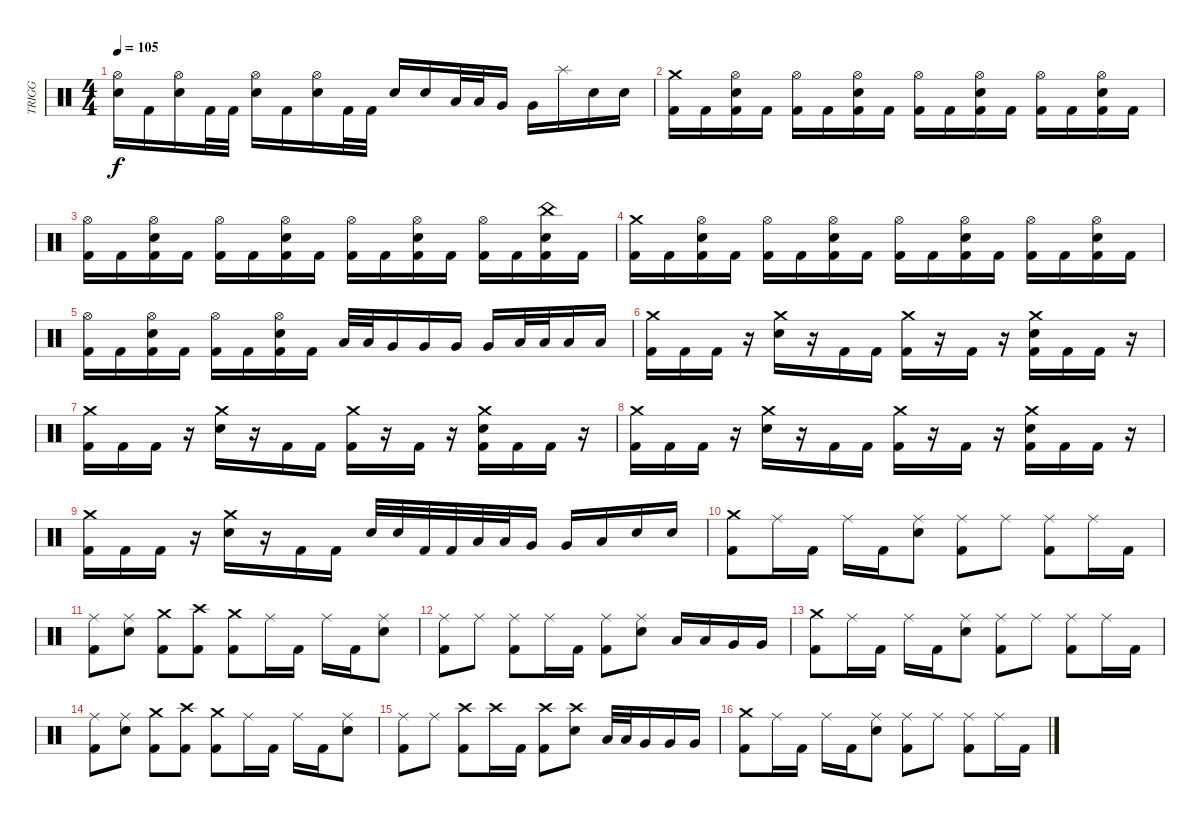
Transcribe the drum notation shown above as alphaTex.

\track ("TRIGG" "TRIGG") {instrument percussion}
\staff {score}
\articulation defaults
\ts (4 4)
\tempo 105
\clef neutral
\ks c
("Hi-Hat (open)" "Electric Snare (hit)").16{dy f} "Kick (hit) 2".16 ("Hi-Hat (open)" "Electric Snare (hit)").16 "Kick (hit) 2".32 "Kick (hit) 2".32 ("Hi-Hat (open)" "Electric Snare (hit)").16 "Kick (hit) 2".16 ("Hi-Hat (open)" "Electric Snare (hit)").16 "Kick (hit) 2".32 "Kick (hit) 2".32 "Electric Snare (hit)".16 "Electric Snare (hit)".16 "Low Tom (hit)".32 "Low Tom (hit)".32 "Very Low Tom (hit)".16 "Very Low Tom (hit)".16 "Splash (hit)".16 "Electric Snare (hit)".16 "Electric Snare (hit)".16 |
("Crash medium (hit)" "Kick (hit) 2").16 "Kick (hit) 2".16 ("Hi-Hat (open)" "Electric Snare (hit)" "Kick (hit) 2").16 "Kick (hit) 2".16 ("Hi-Hat (open)" "Kick (hit) 2").16 "Kick (hit) 2".16 ("Hi-Hat (open)" "Electric Snare (hit)" "Kick (hit) 2").16 "Kick (hit) 2".16 ("Hi-Hat (open)" "Kick (hit) 2").16 "Kick (hit) 2".16 ("Hi-Hat (open)" "Electric Snare (hit)" "Kick (hit) 2").16 "Kick (hit) 2".16 ("Hi-Hat (open)" "Kick (hit) 2").16 "Kick (hit) 2".16 ("Hi-Hat (open)" "Electric Snare (hit)" "Kick (hit) 2").16 "Kick (hit) 2".16 |
("Hi-Hat (open)" "Kick (hit) 2").16 "Kick (hit) 2".16 ("Hi-Hat (open)" "Electric Snare (hit)" "Kick (hit) 2").16 "Kick (hit) 2".16 ("Hi-Hat (open)" "Kick (hit) 2").16 "Kick (hit) 2".16 ("Hi-Hat (open)" "Electric Snare (hit)" "Kick (hit) 2").16 "Kick (hit) 2".16 ("Hi-Hat (open)" "Kick (hit) 2").16 "Kick (hit) 2".16 ("Hi-Hat (open)" "Electric Snare (hit)" "Kick (hit) 2").16 "Kick (hit) 2".16 ("Hi-Hat (open)" "Kick (hit) 2").16 "Kick (hit) 2".16 ("China (hit)" "Electric Snare (hit)" "Kick (hit) 2").16 "Kick (hit) 2".16 |
("Crash medium (hit)" "Kick (hit) 2").16 "Kick (hit) 2".16 ("Hi-Hat (open)" "Electric Snare (hit)" "Kick (hit) 2").16 "Kick (hit) 2".16 ("Hi-Hat (open)" "Kick (hit) 2").16 "Kick (hit) 2".16 ("Hi-Hat (open)" "Electric Snare (hit)" "Kick (hit) 2").16 "Kick (hit) 2".16 ("Hi-Hat (open)" "Kick (hit) 2").16 "Kick (hit) 2".16 ("Hi-Hat (open)" "Electric Snare (hit)" "Kick (hit) 2").16 "Kick (hit) 2".16 ("Hi-Hat (open)" "Kick (hit) 2").16 "Kick (hit) 2".16 ("Hi-Hat (open)" "Electric Snare (hit)" "Kick (hit) 2").16 "Kick (hit) 2".16 |
("Hi-Hat (open)" "Kick (hit) 2").16 "Kick (hit) 2".16 ("Hi-Hat (open)" "Electric Snare (hit)" "Kick (hit) 2").16 "Kick (hit) 2".16 ("Hi-Hat (open)" "Kick (hit) 2").16 "Kick (hit) 2".16 ("Hi-Hat (open)" "Electric Snare (hit)" "Kick (hit) 2").16 "Kick (hit) 2".16 "Low Tom (hit)".32 "Low Tom (hit)".32 "Very Low Tom (hit)".16 "Very Low Tom (hit)".16 "Very Low Tom (hit)".16 "Very Low Tom (hit)".16 "Low Floor Tom (hit)".32 "Low Floor Tom (hit)".32 "Low Floor Tom (hit)".16 "Low Floor Tom (hit)".16 |
("Crash medium (hit)" "Kick (hit) 2").16 "Kick (hit) 2".16 "Kick (hit) 2".16 r.16 ("Crash medium (hit)" "Electric Snare (hit)").16 r.16 "Kick (hit) 2".16 "Kick (hit) 2".16 ("Crash medium (hit)" "Kick (hit) 2").16 r.16 "Kick (hit) 2".16 r.16 ("Crash medium (hit)" "Electric Snare (hit)" "Kick (hit) 2").16 "Kick (hit) 2".16 "Kick (hit) 2".16 r.16 |
("Crash medium (hit)" "Kick (hit) 2").16 "Kick (hit) 2".16 "Kick (hit) 2".16 r.16 ("Crash medium (hit)" "Electric Snare (hit)").16 r.16 "Kick (hit) 2".16 "Kick (hit) 2".16 ("Crash medium (hit)" "Kick (hit) 2").16 r.16 "Kick (hit) 2".16 r.16 ("Crash medium (hit)" "Electric Snare (hit)" "Kick (hit) 2").16 "Kick (hit) 2".16 "Kick (hit) 2".16 r.16 |
("Crash medium (hit)" "Kick (hit) 2").16 "Kick (hit) 2".16 "Kick (hit) 2".16 r.16 ("Crash medium (hit)" "Electric Snare (hit)").16 r.16 "Kick (hit) 2".16 "Kick (hit) 2".16 ("Crash medium (hit)" "Kick (hit) 2").16 r.16 "Kick (hit) 2".16 r.16 ("Crash medium (hit)" "Electric Snare (hit)" "Kick (hit) 2").16 "Kick (hit) 2".16 "Kick (hit) 2".16 r.16 |
("Crash medium (hit)" "Kick (hit) 2").16 "Kick (hit) 2".16 "Kick (hit) 2".16 r.16 ("Crash medium (hit)" "Electric Snare (hit)").16 r.16 "Kick (hit) 2".16 "Kick (hit) 2".16 "Electric Snare (hit)".32 "Electric Snare (hit)".32 "Kick (hit) 2".32 "Kick (hit) 2".32 "Low Tom (hit)".32 "Low Tom (hit)".32 "Very Low Tom (hit)".16 "Very Low Tom (hit)".16 "Low Floor Tom (hit)".16 "Electric Snare (hit)".16 "Electric Snare (hit)".16 |
("Crash medium (hit)" "Kick (hit) 2").8 "Ride (middle)".16 "Kick (hit) 2".16 "Ride (middle)".16 "Kick (hit) 2".16 ("Ride (middle)" "Electric Snare (hit)").8 ("Ride (middle)" "Kick (hit) 2").8 "Ride (middle)".8 ("Ride (middle)" "Kick (hit) 2").8 "Ride (middle)".16 "Kick (hit) 2".16 |
("Ride (middle)" "Kick (hit) 2").8 ("Ride (middle)" "Electric Snare (hit)").8 ("Crash medium (hit)" "Kick (hit) 2").8 ("Crash high (hit)" "Kick (hit) 2").8 ("Crash medium (hit)" "Kick (hit) 2").8 "Ride (middle)".16 "Kick (hit) 2".16 "Ride (middle)".16 "Kick (hit) 2".16 ("Ride (middle)" "Electric Snare (hit)").8 |
("Ride (middle)" "Kick (hit) 2").8 "Ride (middle)".8 ("Ride (middle)" "Kick (hit) 2").8 "Ride (middle)".16 "Kick (hit) 2".16 ("Ride (middle)" "Kick (hit) 2").8 ("Ride (middle)" "Electric Snare (hit)").8 "Low Tom (hit)".16 "Low Tom (hit)".16 "Very Low Tom (hit)".16 "Very Low Tom (hit)".16 |
("Crash medium (hit)" "Kick (hit) 2").8 "Ride (middle)".16 "Kick (hit) 2".16 "Ride (middle)".16 "Kick (hit) 2".16 ("Ride (middle)" "Electric Snare (hit)").8 ("Ride (middle)" "Kick (hit) 2").8 "Ride (middle)".8 ("Ride (middle)" "Kick (hit) 2").8 "Ride (middle)".16 "Kick (hit) 2".16 |
("Ride (middle)" "Kick (hit) 2").8 ("Ride (middle)" "Electric Snare (hit)").8 ("Crash medium (hit)" "Kick (hit) 2").8 ("Crash high (hit)" "Kick (hit) 2").8 ("Crash medium (hit)" "Kick (hit) 2").8 "Ride (middle)".16 "Kick (hit) 2".16 "Ride (middle)".16 "Kick (hit) 2".16 ("Ride (middle)" "Electric Snare (hit)").8 |
("Ride (middle)" "Kick (hit) 2").8 "Ride (middle)".8 ("Crash high (hit)" "Kick (hit) 2").8 "Crash high (hit)".16 "Kick (hit) 2".16 ("Crash high (hit)" "Kick (hit) 2").8 ("Crash high (hit)" "Electric Snare (hit)").8 "Low Tom (hit)".32 "Low Tom (hit)".32 "Very Low Tom (hit)".16 "Very Low Tom (hit)".16 "Very Low Tom (hit)".16 |
("Crash medium (hit)" "Kick (hit) 2").8 "Ride (middle)".16 "Kick (hit) 2".16 "Ride (middle)".16 "Kick (hit) 2".16 ("Ride (middle)" "Electric Snare (hit)").8 ("Ride (middle)" "Kick (hit) 2").8 "Ride (middle)".8 ("Ride (middle)" "Kick (hit) 2").8 "Ride (middle)".16 "Kick (hit) 2".16
